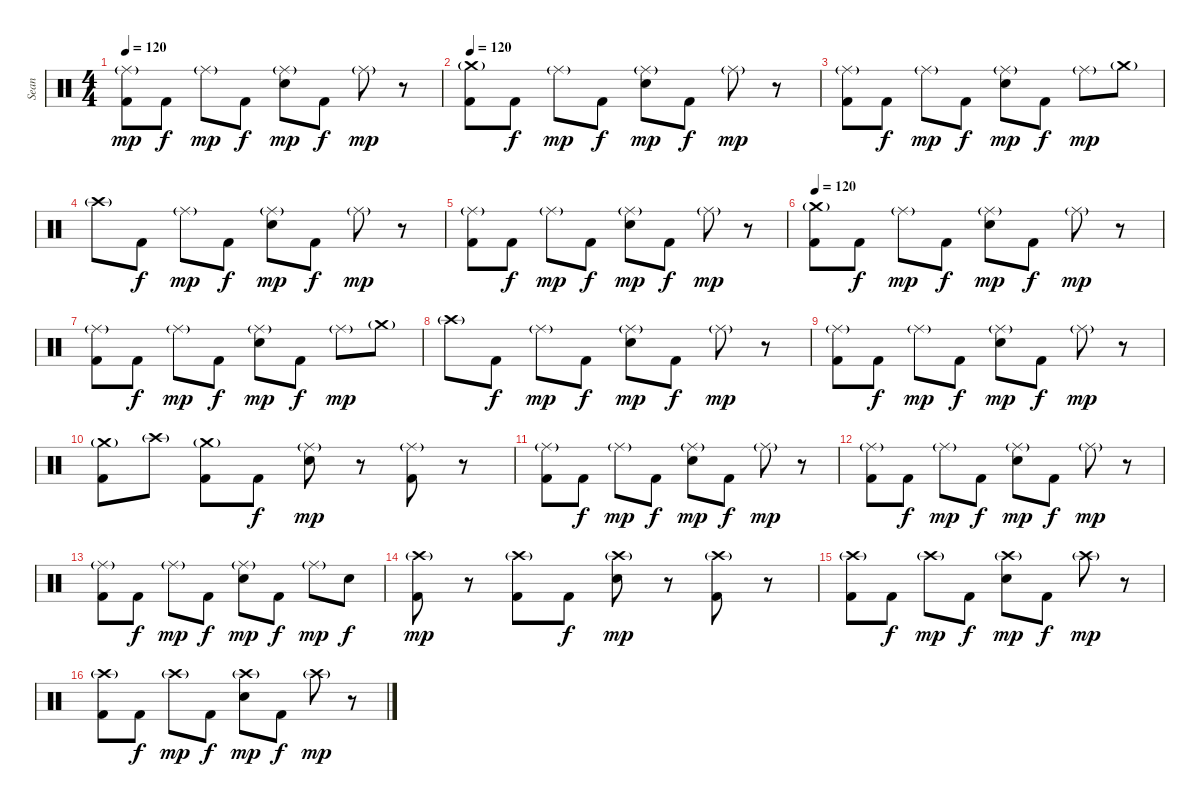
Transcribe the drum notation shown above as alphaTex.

\track ("Sean" "Sean") {instrument percussion}
\staff {score}
\articulation defaults
\ts (4 4)
\tempo 120
\clef neutral
\ks c
("Ride (middle)"{g} "Kick (hit) 2").8{dy mp} "Kick (hit) 2".8{dy f} "Ride (middle)"{g}.8{dy mp} "Kick (hit) 2".8{dy f} ("Ride (middle)"{g} "Electric Snare (hit)").8{dy mp} "Kick (hit) 2".8{dy f} "Ride (middle)"{g}.8{dy mp} r.8 |
\tempo 120
("Crash medium (hit)"{g} "Kick (hit) 2").8 "Kick (hit) 2".8{dy f} "Ride (middle)"{g}.8{dy mp} "Kick (hit) 2".8{dy f} ("Ride (middle)"{g} "Electric Snare (hit)").8{dy mp} "Kick (hit) 2".8{dy f} "Ride (middle)"{g}.8{dy mp} r.8 |
("Ride (middle)"{g} "Kick (hit) 2").8 "Kick (hit) 2".8{dy f} "Ride (middle)"{g}.8{dy mp} "Kick (hit) 2".8{dy f} ("Ride (middle)"{g} "Electric Snare (hit)").8{dy mp} "Kick (hit) 2".8{dy f} "Ride (middle)"{g}.8{dy mp} "Crash medium (hit)"{g}.8 |
"Crash high (hit)"{g}.8 "Kick (hit) 2".8{dy f} "Ride (middle)"{g}.8{dy mp} "Kick (hit) 2".8{dy f} ("Ride (middle)"{g} "Electric Snare (hit)").8{dy mp} "Kick (hit) 2".8{dy f} "Ride (middle)"{g}.8{dy mp} r.8 |
("Ride (middle)"{g} "Kick (hit) 2").8 "Kick (hit) 2".8{dy f} "Ride (middle)"{g}.8{dy mp} "Kick (hit) 2".8{dy f} ("Ride (middle)"{g} "Electric Snare (hit)").8{dy mp} "Kick (hit) 2".8{dy f} "Ride (middle)"{g}.8{dy mp} r.8 |
\tempo 120
("Crash medium (hit)"{g} "Kick (hit) 2").8 "Kick (hit) 2".8{dy f} "Ride (middle)"{g}.8{dy mp} "Kick (hit) 2".8{dy f} ("Ride (middle)"{g} "Electric Snare (hit)").8{dy mp} "Kick (hit) 2".8{dy f} "Ride (middle)"{g}.8{dy mp} r.8 |
("Ride (middle)"{g} "Kick (hit) 2").8 "Kick (hit) 2".8{dy f} "Ride (middle)"{g}.8{dy mp} "Kick (hit) 2".8{dy f} ("Ride (middle)"{g} "Electric Snare (hit)").8{dy mp} "Kick (hit) 2".8{dy f} "Ride (middle)"{g}.8{dy mp} "Crash medium (hit)"{g}.8 |
"Crash high (hit)"{g}.8 "Kick (hit) 2".8{dy f} "Ride (middle)"{g}.8{dy mp} "Kick (hit) 2".8{dy f} ("Ride (middle)"{g} "Electric Snare (hit)").8{dy mp} "Kick (hit) 2".8{dy f} "Ride (middle)"{g}.8{dy mp} r.8 |
("Ride (middle)"{g} "Kick (hit) 2").8 "Kick (hit) 2".8{dy f} "Ride (middle)"{g}.8{dy mp} "Kick (hit) 2".8{dy f} ("Ride (middle)"{g} "Electric Snare (hit)").8{dy mp} "Kick (hit) 2".8{dy f} "Ride (middle)"{g}.8{dy mp} r.8 |
("Crash medium (hit)"{g} "Kick (hit) 2").8 "Crash high (hit)"{g}.8 ("Crash medium (hit)"{g} "Kick (hit) 2").8 "Kick (hit) 2".8{dy f} ("Ride (middle)"{g} "Electric Snare (hit)").8{dy mp} r.8 ("Ride (middle)"{g} "Kick (hit) 2").8 r.8 |
("Ride (middle)"{g} "Kick (hit) 2").8 "Kick (hit) 2".8{dy f} "Ride (middle)"{g}.8{dy mp} "Kick (hit) 2".8{dy f} ("Ride (middle)"{g} "Electric Snare (hit)").8{dy mp} "Kick (hit) 2".8{dy f} "Ride (middle)"{g}.8{dy mp} r.8 |
("Ride (middle)"{g} "Kick (hit) 2").8 "Kick (hit) 2".8{dy f} "Ride (middle)"{g}.8{dy mp} "Kick (hit) 2".8{dy f} ("Ride (middle)"{g} "Electric Snare (hit)").8{dy mp} "Kick (hit) 2".8{dy f} "Ride (middle)"{g}.8{dy mp} r.8 |
("Ride (middle)"{g} "Kick (hit) 2").8 "Kick (hit) 2".8{dy f} "Ride (middle)"{g}.8{dy mp} "Kick (hit) 2".8{dy f} ("Ride (middle)"{g} "Electric Snare (hit)").8{dy mp} "Kick (hit) 2".8{dy f} "Ride (middle)"{g}.8{dy mp} "Electric Snare (hit)".8{dy f} |
("Crash high (hit)"{g} "Kick (hit) 2").8{dy mp} r.8 ("Crash high (hit)"{g} "Kick (hit) 2").8 "Kick (hit) 2".8{dy f} ("Crash high (hit)"{g} "Electric Snare (hit)").8{dy mp} r.8 ("Crash high (hit)"{g} "Kick (hit) 2").8 r.8 |
("Crash high (hit)"{g} "Kick (hit) 2").8 "Kick (hit) 2".8{dy f} "Crash high (hit)"{g}.8{dy mp} "Kick (hit) 2".8{dy f} ("Crash high (hit)"{g} "Electric Snare (hit)").8{dy mp} "Kick (hit) 2".8{dy f} "Crash high (hit)"{g}.8{dy mp} r.8 |
("Crash high (hit)"{g} "Kick (hit) 2").8 "Kick (hit) 2".8{dy f} "Crash high (hit)"{g}.8{dy mp} "Kick (hit) 2".8{dy f} ("Crash high (hit)"{g} "Electric Snare (hit)").8{dy mp} "Kick (hit) 2".8{dy f} "Crash high (hit)"{g}.8{dy mp} r.8
